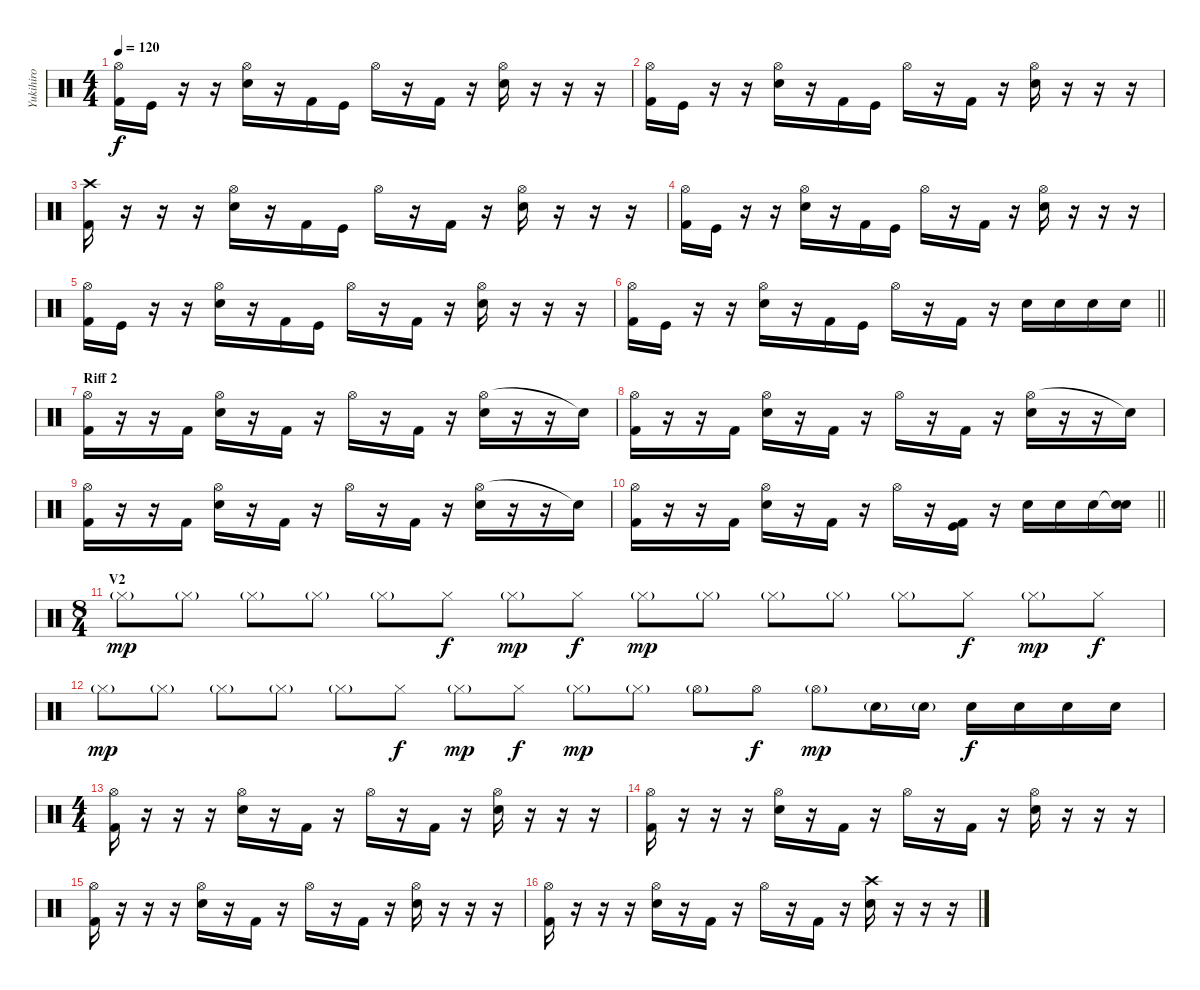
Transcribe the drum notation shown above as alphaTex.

\track ("Yukihiro" "Yukihiro") {instrument percussion}
\staff {score}
\articulation defaults
\ts (4 4)
\tempo 120
\clef neutral
\ks c
("Hi-Hat (open)" "Kick (hit) 2").16{dy f} "Kick (hit)".16 r.16 r.16 ("Hi-Hat (open)" "Snare (hit) 2").16 r.16 "Kick (hit) 2".16 "Kick (hit)".16 "Hi-Hat (open)".16 r.16 "Kick (hit) 2".16 r.16 ("Hi-Hat (open)" "Snare (hit) 2").16 r.16 r.16 r.16 |
("Hi-Hat (open)" "Kick (hit) 2").16 "Kick (hit)".16 r.16 r.16 ("Hi-Hat (open)" "Snare (hit) 2").16 r.16 "Kick (hit) 2".16 "Kick (hit)".16 "Hi-Hat (open)".16 r.16 "Kick (hit) 2".16 r.16 ("Hi-Hat (open)" "Snare (hit) 2").16 r.16 r.16 r.16 |
("Crash high (hit)" "Kick (hit) 2").16 r.16 r.16 r.16 ("Hi-Hat (open)" "Snare (hit) 2").16 r.16 "Kick (hit) 2".16 "Kick (hit)".16 "Hi-Hat (open)".16 r.16 "Kick (hit) 2".16 r.16 ("Hi-Hat (open)" "Snare (hit) 2").16 r.16 r.16 r.16 |
("Hi-Hat (open)" "Kick (hit) 2").16 "Kick (hit)".16 r.16 r.16 ("Hi-Hat (open)" "Snare (hit) 2").16 r.16 "Kick (hit) 2".16 "Kick (hit)".16 "Hi-Hat (open)".16 r.16 "Kick (hit) 2".16 r.16 ("Hi-Hat (open)" "Snare (hit) 2").16 r.16 r.16 r.16 |
("Hi-Hat (open)" "Kick (hit) 2").16 "Kick (hit)".16 r.16 r.16 ("Hi-Hat (open)" "Snare (hit) 2").16 r.16 "Kick (hit) 2".16 "Kick (hit)".16 "Hi-Hat (open)".16 r.16 "Kick (hit) 2".16 r.16 ("Hi-Hat (open)" "Snare (hit) 2").16 r.16 r.16 r.16 |
\barLineRight lightlight
("Hi-Hat (open)" "Kick (hit) 2").16 "Kick (hit)".16 r.16 r.16 ("Hi-Hat (open)" "Snare (hit) 2").16 r.16 "Kick (hit) 2".16 "Kick (hit)".16 "Hi-Hat (open)".16 r.16 "Kick (hit) 2".16 r.16 "Snare (hit) 2".16 "Snare (hit) 2".16 "Snare (hit) 2".16 "Snare (hit) 2".16 |
\section ("" "Riff 2")
("Hi-Hat (open)" "Kick (hit) 2").16 r.16 r.16 "Kick (hit) 2".16 ("Hi-Hat (open)" "Snare (hit) 2").16 r.16 "Kick (hit) 2".16 r.16 "Hi-Hat (open)".16 r.16 "Kick (hit) 2".16 r.16 ("Hi-Hat (open)" "Snare (hit) 2").16 r.16 r.16 "Snare (hit)"{t}.16 |
("Hi-Hat (open)" "Kick (hit) 2").16 r.16 r.16 "Kick (hit) 2".16 ("Hi-Hat (open)" "Snare (hit) 2").16 r.16 "Kick (hit) 2".16 r.16 "Hi-Hat (open)".16 r.16 "Kick (hit) 2".16 r.16 ("Hi-Hat (open)" "Snare (hit) 2").16 r.16 r.16 "Snare (hit)"{t}.16 |
("Hi-Hat (open)" "Kick (hit) 2").16 r.16 r.16 "Kick (hit) 2".16 ("Hi-Hat (open)" "Snare (hit) 2").16 r.16 "Kick (hit) 2".16 r.16 "Hi-Hat (open)".16 r.16 "Kick (hit) 2".16 r.16 ("Hi-Hat (open)" "Snare (hit) 2").16 r.16 r.16 "Snare (hit)"{t}.16 |
\barLineRight lightlight
("Hi-Hat (open)" "Kick (hit) 2").16 r.16 r.16 "Kick (hit) 2".16 ("Hi-Hat (open)" "Snare (hit) 2").16 r.16 "Kick (hit) 2".16 r.16 "Hi-Hat (open)".16 r.16 ("Kick (hit)" "Kick (hit) 2").16 r.16 "Snare (hit) 2".16 "Snare (hit) 2".16 "Snare (hit) 2".16 ("Snare (hit)"{t} "Snare (hit) 2").16 |
\ts (8 4)
\section ("" "V2")
"Hi-Hat (closed)"{g}.8{dy mp} "Hi-Hat (closed)"{g}.8 "Hi-Hat (closed)"{g}.8 "Hi-Hat (closed)"{g}.8 "Hi-Hat (closed)"{g}.8 "Hi-Hat (closed)".8{dy f} "Hi-Hat (closed)"{g}.8{dy mp} "Hi-Hat (closed)".8{dy f} "Hi-Hat (closed)"{g}.8{dy mp} "Hi-Hat (closed)"{g}.8 "Hi-Hat (closed)"{g}.8 "Hi-Hat (closed)"{g}.8 "Hi-Hat (closed)"{g}.8 "Hi-Hat (closed)".8{dy f} "Hi-Hat (closed)"{g}.8{dy mp} "Hi-Hat (closed)".8{dy f} |
"Hi-Hat (closed)"{g}.8{dy mp} "Hi-Hat (closed)"{g}.8 "Hi-Hat (closed)"{g}.8 "Hi-Hat (closed)"{g}.8 "Hi-Hat (closed)"{g}.8 "Hi-Hat (closed)".8{dy f} "Hi-Hat (closed)"{g}.8{dy mp} "Hi-Hat (closed)".8{dy f} "Hi-Hat (closed)"{g}.8{dy mp} "Hi-Hat (closed)"{g}.8 "Hi-Hat (open)"{g}.8 "Hi-Hat (open)".8{dy f} "Hi-Hat (open)"{g}.8{dy mp} "Snare (hit) 2"{g}.16 "Snare (hit) 2"{g}.16 "Snare (hit) 2".16{dy f} "Snare (hit) 2".16 "Snare (hit) 2".16 "Snare (hit) 2".16 |
\ts (4 4)
("Hi-Hat (open)" "Kick (hit) 2").16 r.16 r.16 r.16 ("Hi-Hat (open)" "Snare (hit) 2").16 r.16 "Kick (hit) 2".16 r.16 "Hi-Hat (open)".16 r.16 "Kick (hit) 2".16 r.16 ("Hi-Hat (open)" "Snare (hit) 2").16 r.16 r.16 r.16 |
("Hi-Hat (open)" "Kick (hit) 2").16 r.16 r.16 r.16 ("Hi-Hat (open)" "Snare (hit) 2").16 r.16 "Kick (hit) 2".16 r.16 "Hi-Hat (open)".16 r.16 "Kick (hit) 2".16 r.16 ("Hi-Hat (open)" "Snare (hit) 2").16 r.16 r.16 r.16 |
("Hi-Hat (open)" "Kick (hit) 2").16 r.16 r.16 r.16 ("Hi-Hat (open)" "Snare (hit) 2").16 r.16 "Kick (hit) 2".16 r.16 "Hi-Hat (open)".16 r.16 "Kick (hit) 2".16 r.16 ("Hi-Hat (open)" "Snare (hit) 2").16 r.16 r.16 r.16 |
("Hi-Hat (open)" "Kick (hit) 2").16 r.16 r.16 r.16 ("Hi-Hat (open)" "Snare (hit) 2").16 r.16 "Kick (hit) 2".16 r.16 "Hi-Hat (open)".16 r.16 "Kick (hit) 2".16 r.16 ("Crash high (hit)" "Snare (hit) 2").16 r.16 r.16 r.16
